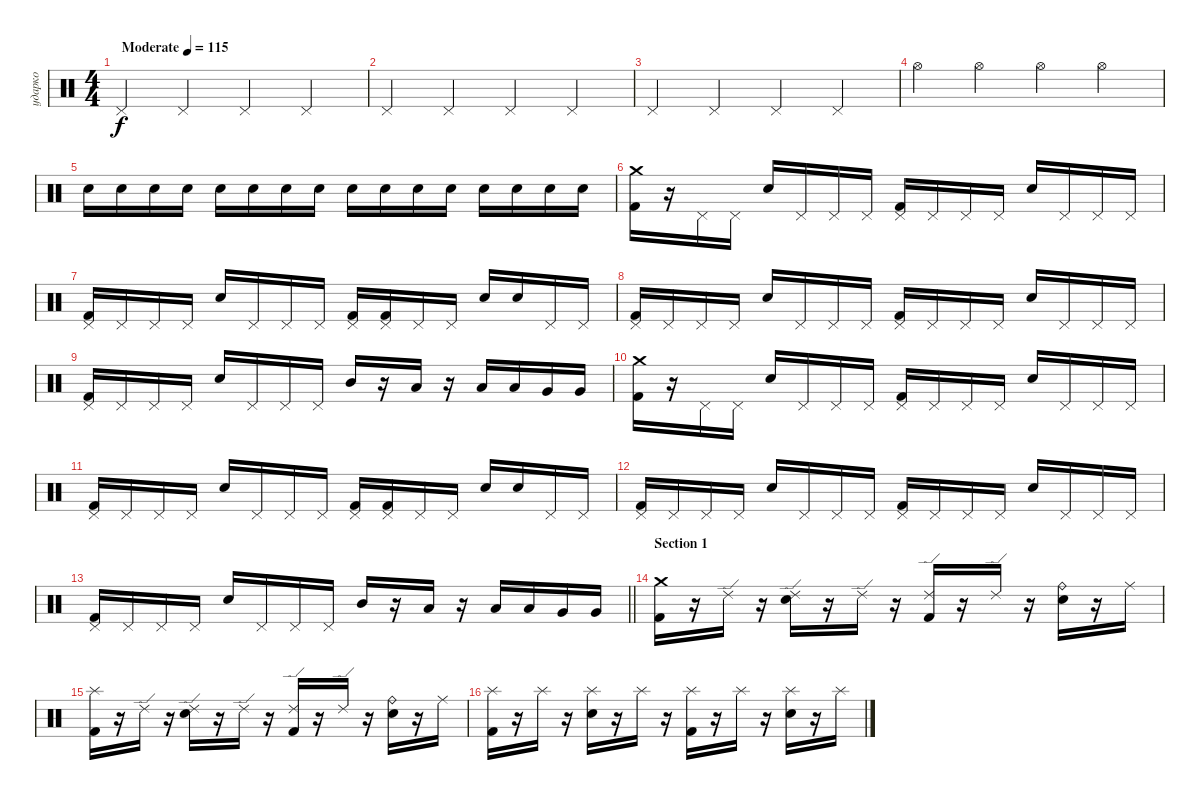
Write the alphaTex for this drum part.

\track ("ударко" "ударко") {instrument percussion}
\staff
\articulation defaults
\ts (4 4)
\tempo (115 "Moderate")
\clef neutral
\ks c "Pedal Hi-Hat (hit)".4{dy f} "Pedal Hi-Hat (hit)".4 "Pedal Hi-Hat (hit)".4 "Pedal Hi-Hat (hit)".4
|
"Pedal Hi-Hat (hit)".4 "Pedal Hi-Hat (hit)".4 "Pedal Hi-Hat (hit)".4 "Pedal Hi-Hat (hit)".4 |
"Pedal Hi-Hat (hit)".4 "Pedal Hi-Hat (hit)".4 "Pedal Hi-Hat (hit)".4 "Pedal Hi-Hat (hit)".4 |
"Hi-Hat (open)".4 "Hi-Hat (open)".4 "Hi-Hat (open)".4 "Hi-Hat (open)".4 |
"Electric Snare (hit)".16 "Electric Snare (hit)".16 "Electric Snare (hit)".16 "Electric Snare (hit)".16 "Electric Snare (hit)".16 "Electric Snare (hit)".16 "Electric Snare (hit)".16 "Electric Snare (hit)".16 "Electric Snare (hit)".16 "Electric Snare (hit)".16 "Electric Snare (hit)".16 "Electric Snare (hit)".16 "Electric Snare (hit)".16 "Electric Snare (hit)".16 "Electric Snare (hit)".16 "Electric Snare (hit)".16 |
("Crash medium (hit)" "Kick (hit) 2").16 r.16 "Pedal Hi-Hat (hit)".16 "Pedal Hi-Hat (hit)".16 "Electric Snare (hit)".16 "Pedal Hi-Hat (hit)".16 "Pedal Hi-Hat (hit)".16 "Pedal Hi-Hat (hit)".16 ("Pedal Hi-Hat (hit)" "Kick (hit) 2").16 "Pedal Hi-Hat (hit)".16 "Pedal Hi-Hat (hit)".16 "Pedal Hi-Hat (hit)".16 "Electric Snare (hit)".16 "Pedal Hi-Hat (hit)".16 "Pedal Hi-Hat (hit)".16 "Pedal Hi-Hat (hit)".16 |
("Pedal Hi-Hat (hit)" "Kick (hit) 2").16 "Pedal Hi-Hat (hit)".16 "Pedal Hi-Hat (hit)".16 "Pedal Hi-Hat (hit)".16 "Electric Snare (hit)".16 "Pedal Hi-Hat (hit)".16 "Pedal Hi-Hat (hit)".16 "Pedal Hi-Hat (hit)".16 ("Pedal Hi-Hat (hit)" "Kick (hit) 2").16 ("Pedal Hi-Hat (hit)" "Kick (hit) 2").16 "Pedal Hi-Hat (hit)".16 "Pedal Hi-Hat (hit)".16 "Electric Snare (hit)".16 "Electric Snare (hit)".16 "Pedal Hi-Hat (hit)".16 "Pedal Hi-Hat (hit)".16 |
("Pedal Hi-Hat (hit)" "Kick (hit) 2").16 "Pedal Hi-Hat (hit)".16 "Pedal Hi-Hat (hit)".16 "Pedal Hi-Hat (hit)".16 "Electric Snare (hit)".16 "Pedal Hi-Hat (hit)".16 "Pedal Hi-Hat (hit)".16 "Pedal Hi-Hat (hit)".16 ("Pedal Hi-Hat (hit)" "Kick (hit) 2").16 "Pedal Hi-Hat (hit)".16 "Pedal Hi-Hat (hit)".16 "Pedal Hi-Hat (hit)".16 "Electric Snare (hit)".16 "Pedal Hi-Hat (hit)".16 "Pedal Hi-Hat (hit)".16 "Pedal Hi-Hat (hit)".16 |
("Pedal Hi-Hat (hit)" "Kick (hit) 2").16 "Pedal Hi-Hat (hit)".16 "Pedal Hi-Hat (hit)".16 "Pedal Hi-Hat (hit)".16 "Electric Snare (hit)".16 "Pedal Hi-Hat (hit)".16 "Pedal Hi-Hat (hit)".16 "Pedal Hi-Hat (hit)".16 "Mid Tom (hit)".16 r.16 "Low Tom (hit)".16 r.16 "Low Tom (hit)".16 "Low Tom (hit)".16 "Very Low Tom (hit)".16 "Very Low Tom (hit)".16 |
("Crash medium (hit)" "Kick (hit) 2").16 r.16 "Pedal Hi-Hat (hit)".16 "Pedal Hi-Hat (hit)".16 "Electric Snare (hit)".16 "Pedal Hi-Hat (hit)".16 "Pedal Hi-Hat (hit)".16 "Pedal Hi-Hat (hit)".16 ("Pedal Hi-Hat (hit)" "Kick (hit) 2").16 "Pedal Hi-Hat (hit)".16 "Pedal Hi-Hat (hit)".16 "Pedal Hi-Hat (hit)".16 "Electric Snare (hit)".16 "Pedal Hi-Hat (hit)".16 "Pedal Hi-Hat (hit)".16 "Pedal Hi-Hat (hit)".16 |
("Pedal Hi-Hat (hit)" "Kick (hit) 2").16 "Pedal Hi-Hat (hit)".16 "Pedal Hi-Hat (hit)".16 "Pedal Hi-Hat (hit)".16 "Electric Snare (hit)".16 "Pedal Hi-Hat (hit)".16 "Pedal Hi-Hat (hit)".16 "Pedal Hi-Hat (hit)".16 ("Pedal Hi-Hat (hit)" "Kick (hit) 2").16 ("Pedal Hi-Hat (hit)" "Kick (hit) 2").16 "Pedal Hi-Hat (hit)".16 "Pedal Hi-Hat (hit)".16 "Electric Snare (hit)".16 "Electric Snare (hit)".16 "Pedal Hi-Hat (hit)".16 "Pedal Hi-Hat (hit)".16 |
("Pedal Hi-Hat (hit)" "Kick (hit) 2").16 "Pedal Hi-Hat (hit)".16 "Pedal Hi-Hat (hit)".16 "Pedal Hi-Hat (hit)".16 "Electric Snare (hit)".16 "Pedal Hi-Hat (hit)".16 "Pedal Hi-Hat (hit)".16 "Pedal Hi-Hat (hit)".16 ("Pedal Hi-Hat (hit)" "Kick (hit) 2").16 "Pedal Hi-Hat (hit)".16 "Pedal Hi-Hat (hit)".16 "Pedal Hi-Hat (hit)".16 "Electric Snare (hit)".16 "Pedal Hi-Hat (hit)".16 "Pedal Hi-Hat (hit)".16 "Pedal Hi-Hat (hit)".16 |
\barLineRight lightlight
("Pedal Hi-Hat (hit)" "Kick (hit) 2").16 "Pedal Hi-Hat (hit)".16 "Pedal Hi-Hat (hit)".16 "Pedal Hi-Hat (hit)".16 "Electric Snare (hit)".16 "Pedal Hi-Hat (hit)".16 "Pedal Hi-Hat (hit)".16 "Pedal Hi-Hat (hit)".16 "Mid Tom (hit)".16 r.16 "Low Tom (hit)".16 r.16 "Low Tom (hit)".16 "Low Tom (hit)".16 "Very Low Tom (hit)".16 "Very Low Tom (hit)".16 |
\section ("" "Section 1")
("Crash medium (hit)" "Kick (hit) 2").16 r.16 "Ride (edge) 2".16 r.16 ("Ride (edge) 2" "Electric Snare (hit)").16 r.16 "Ride (edge) 2".16 r.16 ("Ride (edge) 2" "Kick (hit) 2").16 r.16 "Ride (edge) 2".16 r.16 ("Ride (bell)" "Electric Snare (hit)").16 r.16 "Ride (middle)".16 |
("Splash (hit)" "Kick (hit) 2").16 r.16 "Ride (edge) 2".16 r.16 ("Ride (edge) 2" "Electric Snare (hit)").16 r.16 "Ride (edge) 2".16 r.16 ("Ride (edge) 2" "Kick (hit) 2").16 r.16 "Ride (edge) 2".16 r.16 ("Ride (bell)" "Electric Snare (hit)").16 r.16 "Ride (middle)".16 |
("Splash (hit)" "Kick (hit) 2").16 r.16 "Splash (hit)".16 r.16 ("Splash (hit)" "Electric Snare (hit)").16 r.16 "Splash (hit)".16 r.16 ("Splash (hit)" "Kick (hit) 2").16 r.16 "Splash (hit)".16 r.16 ("Splash (hit)" "Electric Snare (hit)").16 r.16 "Splash (hit)".16
